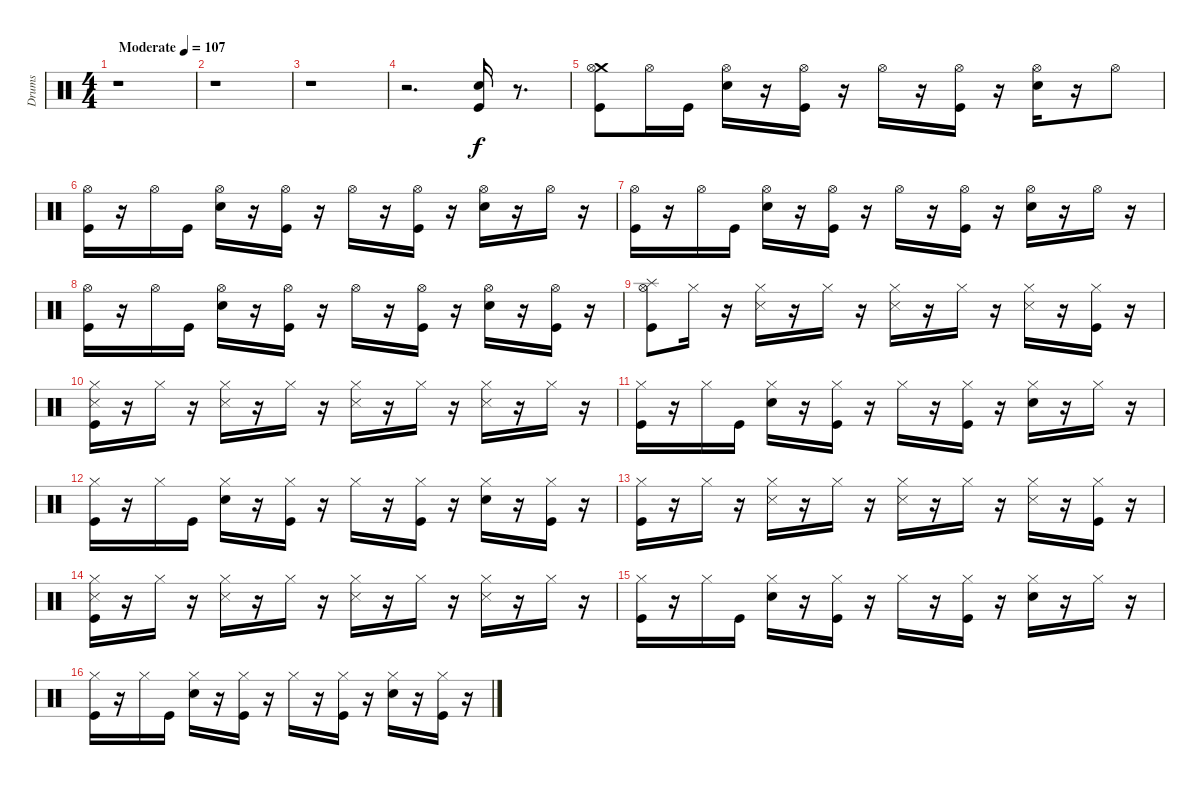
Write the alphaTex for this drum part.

\track ("Drums" "Drums") {instrument percussion}
\staff {score}
\articulation defaults
\ts (4 4)
\tempo (107 "Moderate")
\clef neutral
\ks c
r.1{dy f} |
r.1 |
r.1 |
r.2{d} ("Kick (hit)" "Electric Snare (hit)").16 r.8{d} |
("Kick (hit)" "Crash medium (hit)" "Hi-Hat (open)").8 "Hi-Hat (open)".16 "Kick (hit)".16 ("Hi-Hat (open)" "Electric Snare (hit)").16 r.16 ("Hi-Hat (open)" "Kick (hit)").16 r.16 "Hi-Hat (open)".16 r.16 ("Hi-Hat (open)" "Kick (hit)").16 r.16 ("Hi-Hat (open)" "Electric Snare (hit)").16 r.16 "Hi-Hat (open)".8 |
("Kick (hit)" "Hi-Hat (open)").16 r.16 "Hi-Hat (open)".16 "Kick (hit)".16 ("Electric Snare (hit)" "Hi-Hat (open)").16 r.16 ("Kick (hit)" "Hi-Hat (open)").16 r.16 "Hi-Hat (open)".16 r.16 ("Kick (hit)" "Hi-Hat (open)").16 r.16 ("Electric Snare (hit)" "Hi-Hat (open)").16 r.16 "Hi-Hat (open)".16 r.16 |
("Hi-Hat (open)" "Kick (hit)").16 r.16 "Hi-Hat (open)".16 "Kick (hit)".16 ("Electric Snare (hit)" "Hi-Hat (open)").16 r.16 ("Kick (hit)" "Hi-Hat (open)").16 r.16 "Hi-Hat (open)".16 r.16 ("Kick (hit)" "Hi-Hat (open)").16 r.16 ("Hi-Hat (open)" "Electric Snare (hit)").16 r.16 "Hi-Hat (open)".16 r.16 |
("Hi-Hat (open)" "Kick (hit)").16 r.16 "Hi-Hat (open)".16 "Kick (hit)".16 ("Hi-Hat (open)" "Electric Snare (hit)").16 r.16 ("Kick (hit)" "Hi-Hat (open)").16 r.16 "Hi-Hat (open)".16 r.16 ("Kick (hit)" "Hi-Hat (open)").16 r.16 ("Electric Snare (hit)" "Hi-Hat (open)").16 r.16 ("Kick (hit)" "Hi-Hat (open)").16 r.16 |
("Hi-Hat (open)" "Kick (hit)" "Splash (hit)").8 "Hi-Hat (closed)".16 r.16 ("Hi-Hat (closed)" "Metronome (hit)").16 r.16 "Hi-Hat (closed)".16 r.16 ("Hi-Hat (closed)" "Metronome (hit)").16 r.16 "Hi-Hat (closed)".16 r.16 ("Hi-Hat (closed)" "Metronome (hit)").16 r.16 ("Hi-Hat (closed)" "Kick (hit)").16 r.16 |
("Hi-Hat (closed)" "Kick (hit)" "Metronome (hit)").16 r.16 "Hi-Hat (closed)".16 r.16 ("Hi-Hat (closed)" "Metronome (hit)").16 r.16 "Hi-Hat (closed)".16 r.16 ("Hi-Hat (closed)" "Metronome (hit)").16 r.16 "Hi-Hat (closed)".16 r.16 ("Hi-Hat (closed)" "Metronome (hit)").16 r.16 "Hi-Hat (closed)".16 r.16 |
("Hi-Hat (closed)" "Kick (hit)").16 r.16 "Hi-Hat (closed)".16 "Kick (hit)".16 ("Hi-Hat (closed)" "Electric Snare (hit)").16 r.16 ("Kick (hit)" "Hi-Hat (closed)").16 r.16 "Hi-Hat (closed)".16 r.16 ("Hi-Hat (closed)" "Kick (hit)").16 r.16 ("Hi-Hat (closed)" "Electric Snare (hit)").16 r.16 "Hi-Hat (closed)".16 r.16 |
("Kick (hit)" "Hi-Hat (closed)").16 r.16 "Hi-Hat (closed)".16 "Kick (hit)".16 ("Electric Snare (hit)" "Hi-Hat (closed)").16 r.16 ("Kick (hit)" "Hi-Hat (closed)").16 r.16 "Hi-Hat (closed)".16 r.16 ("Kick (hit)" "Hi-Hat (closed)").16 r.16 ("Electric Snare (hit)" "Hi-Hat (closed)").16 r.16 ("Kick (hit)" "Hi-Hat (closed)").16 r.16 |
("Hi-Hat (closed)" "Kick (hit)").16 r.16 "Hi-Hat (closed)".16 r.16 ("Hi-Hat (closed)" "Metronome (hit)").16 r.16 "Hi-Hat (closed)".16 r.16 ("Hi-Hat (closed)" "Metronome (hit)").16 r.16 "Hi-Hat (closed)".16 r.16 ("Hi-Hat (closed)" "Metronome (hit)").16 r.16 ("Hi-Hat (closed)" "Kick (hit)").16 r.16 |
("Hi-Hat (closed)" "Kick (hit)" "Metronome (hit)").16 r.16 "Hi-Hat (closed)".16 r.16 ("Hi-Hat (closed)" "Metronome (hit)").16 r.16 "Hi-Hat (closed)".16 r.16 ("Hi-Hat (closed)" "Metronome (hit)").16 r.16 "Hi-Hat (closed)".16 r.16 ("Hi-Hat (closed)" "Metronome (hit)").16 r.16 "Hi-Hat (closed)".16 r.16 |
("Hi-Hat (closed)" "Kick (hit)").16 r.16 "Hi-Hat (closed)".16 "Kick (hit)".16 ("Hi-Hat (closed)" "Electric Snare (hit)").16 r.16 ("Kick (hit)" "Hi-Hat (closed)").16 r.16 "Hi-Hat (closed)".16 r.16 ("Hi-Hat (closed)" "Kick (hit)").16 r.16 ("Hi-Hat (closed)" "Electric Snare (hit)").16 r.16 "Hi-Hat (closed)".16 r.16 |
("Kick (hit)" "Hi-Hat (closed)").16 r.16 "Hi-Hat (closed)".16 "Kick (hit)".16 ("Electric Snare (hit)" "Hi-Hat (closed)").16 r.16 ("Kick (hit)" "Hi-Hat (closed)").16 r.16 "Hi-Hat (closed)".16 r.16 ("Kick (hit)" "Hi-Hat (closed)").16 r.16 ("Electric Snare (hit)" "Hi-Hat (closed)").16 r.16 ("Kick (hit)" "Hi-Hat (closed)").16 r.16
